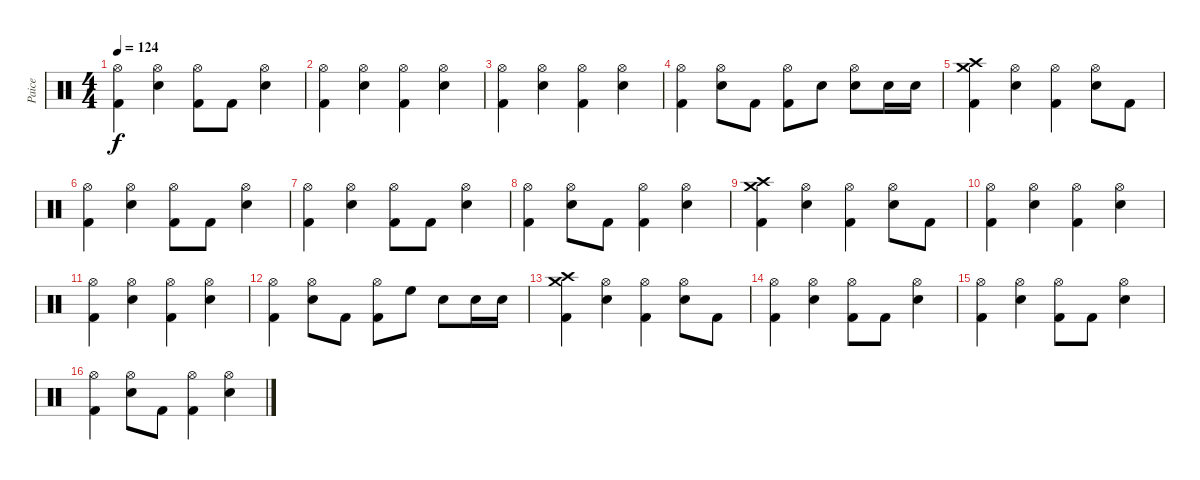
\track ("Paice" "Paice") {instrument percussion}
\staff {score}
\articulation defaults
\ts (4 4)
\tempo 124
\clef neutral
\ks c
("Hi-Hat (open)" "Kick (hit) 2").4{dy f} ("Hi-Hat (open)" "Electric Snare (hit)").4 ("Hi-Hat (open)" "Kick (hit) 2").8 "Kick (hit) 2".8 ("Hi-Hat (open)" "Electric Snare (hit)").4 |
("Hi-Hat (open)" "Kick (hit) 2").4 ("Hi-Hat (open)" "Electric Snare (hit)").4 ("Hi-Hat (open)" "Kick (hit) 2").4 ("Hi-Hat (open)" "Electric Snare (hit)").4 |
("Hi-Hat (open)" "Kick (hit) 2").4 ("Hi-Hat (open)" "Electric Snare (hit)").4 ("Hi-Hat (open)" "Kick (hit) 2").4 ("Hi-Hat (open)" "Electric Snare (hit)").4 |
("Hi-Hat (open)" "Kick (hit) 2").4 ("Hi-Hat (open)" "Electric Snare (hit)").8 "Kick (hit) 2".8 ("Hi-Hat (open)" "Kick (hit) 2").8 "Electric Snare (hit)".8 ("Hi-Hat (open)" "Electric Snare (hit)").8 "Electric Snare (hit)".16 "Electric Snare (hit)".16 |
("Crash high (hit)" "Crash medium (hit)" "Kick (hit) 2").4 ("Hi-Hat (open)" "Electric Snare (hit)").4 ("Hi-Hat (open)" "Kick (hit) 2").4 ("Hi-Hat (open)" "Electric Snare (hit)").8 "Kick (hit) 2".8 |
("Hi-Hat (open)" "Kick (hit) 2").4 ("Hi-Hat (open)" "Electric Snare (hit)").4 ("Hi-Hat (open)" "Kick (hit) 2").8 "Kick (hit) 2".8 ("Hi-Hat (open)" "Electric Snare (hit)").4 |
("Hi-Hat (open)" "Kick (hit) 2").4 ("Hi-Hat (open)" "Electric Snare (hit)").4 ("Hi-Hat (open)" "Kick (hit) 2").8 "Kick (hit) 2".8 ("Hi-Hat (open)" "Electric Snare (hit)").4 |
("Hi-Hat (open)" "Kick (hit) 2").4 ("Hi-Hat (open)" "Electric Snare (hit)").8 "Kick (hit) 2".8 ("Hi-Hat (open)" "Kick (hit) 2").4 ("Hi-Hat (open)" "Electric Snare (hit)").4 |
("Crash high (hit)" "Crash medium (hit)" "Kick (hit) 2").4 ("Hi-Hat (open)" "Electric Snare (hit)").4 ("Hi-Hat (open)" "Kick (hit) 2").4 ("Hi-Hat (open)" "Electric Snare (hit)").8 "Kick (hit) 2".8 |
("Hi-Hat (open)" "Kick (hit) 2").4 ("Hi-Hat (open)" "Electric Snare (hit)").4 ("Hi-Hat (open)" "Kick (hit) 2").4 ("Hi-Hat (open)" "Electric Snare (hit)").4 |
("Hi-Hat (open)" "Kick (hit) 2").4 ("Hi-Hat (open)" "Electric Snare (hit)").4 ("Hi-Hat (open)" "Kick (hit) 2").4 ("Hi-Hat (open)" "Electric Snare (hit)").4 |
("Hi-Hat (open)" "Kick (hit) 2").4 ("Hi-Hat (open)" "Electric Snare (hit)").8 "Kick (hit) 2".8 ("Hi-Hat (open)" "Kick (hit) 2").8 "High Floor Tom (hit)".8 "Electric Snare (hit)".8 "Electric Snare (hit)".16 "Electric Snare (hit)".16 |
("Crash high (hit)" "Crash medium (hit)" "Kick (hit) 2").4 ("Hi-Hat (open)" "Electric Snare (hit)").4 ("Hi-Hat (open)" "Kick (hit) 2").4 ("Hi-Hat (open)" "Electric Snare (hit)").8 "Kick (hit) 2".8 |
("Hi-Hat (open)" "Kick (hit) 2").4 ("Hi-Hat (open)" "Electric Snare (hit)").4 ("Hi-Hat (open)" "Kick (hit) 2").8 "Kick (hit) 2".8 ("Hi-Hat (open)" "Electric Snare (hit)").4 |
("Hi-Hat (open)" "Kick (hit) 2").4 ("Hi-Hat (open)" "Electric Snare (hit)").4 ("Hi-Hat (open)" "Kick (hit) 2").8 "Kick (hit) 2".8 ("Hi-Hat (open)" "Electric Snare (hit)").4 |
("Hi-Hat (open)" "Kick (hit) 2").4 ("Hi-Hat (open)" "Electric Snare (hit)").8 "Kick (hit) 2".8 ("Hi-Hat (open)" "Kick (hit) 2").4 ("Hi-Hat (open)" "Electric Snare (hit)").4
